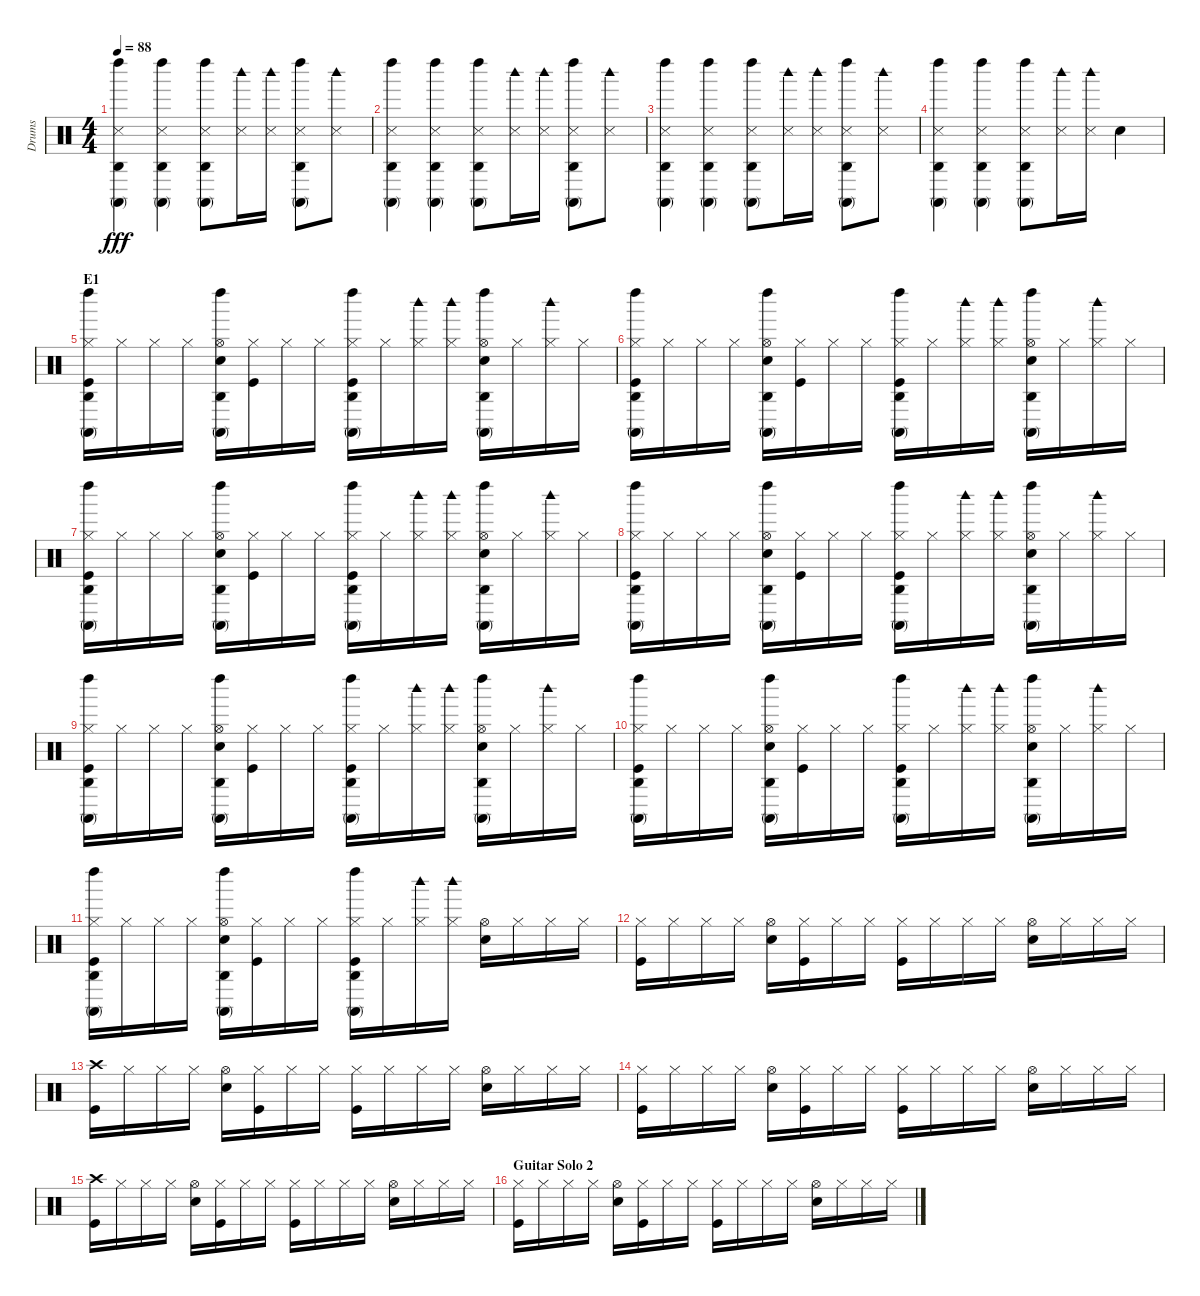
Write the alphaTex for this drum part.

\track ("Drums" "Drums") {instrument percussion}
\staff {score}
\articulation defaults
\ts (4 4)
\tempo 88
\clef neutral
\ks c
("Left Maraca (hit)" "Agogo high (hit)" "Conga high (mute)" "Snare (side stick) 3").4{dy fff} ("Left Maraca (hit)" "Agogo high (hit)" "Conga high (mute)" "Snare (side stick) 3").4 ("Left Maraca (hit)" "Agogo high (hit)" "Conga high (mute)" "Snare (side stick) 3").8 ("Woodblock high (hit)" "Snare (side stick) 3").16 ("Woodblock high (hit)" "Snare (side stick) 3").16 ("Left Maraca (hit)" "Agogo high (hit)" "Conga high (mute)" "Snare (side stick) 3").8 ("Woodblock high (hit)" "Snare (side stick) 3").8 |
("Left Maraca (hit)" "Agogo high (hit)" "Conga high (mute)" "Snare (side stick) 3").4 ("Left Maraca (hit)" "Agogo high (hit)" "Conga high (mute)" "Snare (side stick) 3").4 ("Left Maraca (hit)" "Agogo high (hit)" "Conga high (mute)" "Snare (side stick) 3").8 ("Woodblock high (hit)" "Snare (side stick) 3").16 ("Woodblock high (hit)" "Snare (side stick) 3").16 ("Left Maraca (hit)" "Agogo high (hit)" "Conga high (mute)" "Snare (side stick) 3").8 ("Woodblock high (hit)" "Snare (side stick) 3").8 |
("Left Maraca (hit)" "Agogo high (hit)" "Conga high (mute)" "Snare (side stick) 3").4 ("Left Maraca (hit)" "Agogo high (hit)" "Conga high (mute)" "Snare (side stick) 3").4 ("Left Maraca (hit)" "Agogo high (hit)" "Conga high (mute)" "Snare (side stick) 3").8 ("Woodblock high (hit)" "Snare (side stick) 3").16 ("Woodblock high (hit)" "Snare (side stick) 3").16 ("Left Maraca (hit)" "Agogo high (hit)" "Conga high (mute)" "Snare (side stick) 3").8 ("Woodblock high (hit)" "Snare (side stick) 3").8 |
("Left Maraca (hit)" "Agogo high (hit)" "Conga high (mute)" "Snare (side stick) 3").4 ("Left Maraca (hit)" "Agogo high (hit)" "Conga high (mute)" "Snare (side stick) 3").4 ("Left Maraca (hit)" "Agogo high (hit)" "Conga high (mute)" "Snare (side stick) 3").8 ("Woodblock high (hit)" "Snare (side stick) 3").16 ("Woodblock high (hit)" "Snare (side stick) 3").16 "Electric Snare (hit)".4 |
\section ("" "E1")
("Hi-Hat (closed)" "Left Maraca (hit)" "Agogo high (hit)" "Conga high (mute)" "Kick (hit)").16 "Hi-Hat (closed)".16 "Hi-Hat (closed)".16 "Hi-Hat (closed)".16 ("Hi-Hat (open)" "Left Maraca (hit)" "Agogo high (hit)" "Conga high (mute)" "Snare (hit) 2").16 ("Hi-Hat (closed)" "Kick (hit)").16 "Hi-Hat (closed)".16 "Hi-Hat (closed)".16 ("Hi-Hat (closed)" "Left Maraca (hit)" "Agogo high (hit)" "Conga high (mute)" "Kick (hit)").16 "Hi-Hat (closed)".16 ("Hi-Hat (closed)" "Woodblock high (hit)").16 ("Hi-Hat (closed)" "Woodblock high (hit)").16 ("Hi-Hat (open)" "Left Maraca (hit)" "Agogo high (hit)" "Conga high (mute)" "Snare (hit) 2").16 "Hi-Hat (closed)".16 ("Hi-Hat (closed)" "Woodblock high (hit)").16 "Hi-Hat (closed)".16 |
("Hi-Hat (closed)" "Left Maraca (hit)" "Agogo high (hit)" "Conga high (mute)" "Kick (hit)").16 "Hi-Hat (closed)".16 "Hi-Hat (closed)".16 "Hi-Hat (closed)".16 ("Hi-Hat (open)" "Left Maraca (hit)" "Agogo high (hit)" "Conga high (mute)" "Snare (hit) 2").16 ("Hi-Hat (closed)" "Kick (hit)").16 "Hi-Hat (closed)".16 "Hi-Hat (closed)".16 ("Hi-Hat (closed)" "Left Maraca (hit)" "Agogo high (hit)" "Conga high (mute)" "Kick (hit)").16 "Hi-Hat (closed)".16 ("Hi-Hat (closed)" "Woodblock high (hit)").16 ("Hi-Hat (closed)" "Woodblock high (hit)").16 ("Hi-Hat (open)" "Left Maraca (hit)" "Agogo high (hit)" "Conga high (mute)" "Snare (hit) 2").16 "Hi-Hat (closed)".16 ("Hi-Hat (closed)" "Woodblock high (hit)").16 "Hi-Hat (closed)".16 |
("Hi-Hat (closed)" "Left Maraca (hit)" "Agogo high (hit)" "Conga high (mute)" "Kick (hit)").16 "Hi-Hat (closed)".16 "Hi-Hat (closed)".16 "Hi-Hat (closed)".16 ("Hi-Hat (open)" "Left Maraca (hit)" "Agogo high (hit)" "Conga high (mute)" "Snare (hit) 2").16 ("Hi-Hat (closed)" "Kick (hit)").16 "Hi-Hat (closed)".16 "Hi-Hat (closed)".16 ("Hi-Hat (closed)" "Left Maraca (hit)" "Agogo high (hit)" "Conga high (mute)" "Kick (hit)").16 "Hi-Hat (closed)".16 ("Hi-Hat (closed)" "Woodblock high (hit)").16 ("Hi-Hat (closed)" "Woodblock high (hit)").16 ("Hi-Hat (open)" "Left Maraca (hit)" "Agogo high (hit)" "Conga high (mute)" "Snare (hit) 2").16 "Hi-Hat (closed)".16 ("Hi-Hat (closed)" "Woodblock high (hit)").16 "Hi-Hat (closed)".16 |
("Hi-Hat (closed)" "Left Maraca (hit)" "Agogo high (hit)" "Conga high (mute)" "Kick (hit)").16 "Hi-Hat (closed)".16 "Hi-Hat (closed)".16 "Hi-Hat (closed)".16 ("Hi-Hat (open)" "Left Maraca (hit)" "Agogo high (hit)" "Conga high (mute)" "Snare (hit) 2").16 ("Hi-Hat (closed)" "Kick (hit)").16 "Hi-Hat (closed)".16 "Hi-Hat (closed)".16 ("Hi-Hat (closed)" "Left Maraca (hit)" "Agogo high (hit)" "Conga high (mute)" "Kick (hit)").16 "Hi-Hat (closed)".16 ("Hi-Hat (closed)" "Woodblock high (hit)").16 ("Hi-Hat (closed)" "Woodblock high (hit)").16 ("Hi-Hat (open)" "Left Maraca (hit)" "Agogo high (hit)" "Conga high (mute)" "Snare (hit) 2").16 "Hi-Hat (closed)".16 ("Hi-Hat (closed)" "Woodblock high (hit)").16 "Hi-Hat (closed)".16 |
("Hi-Hat (closed)" "Left Maraca (hit)" "Agogo high (hit)" "Conga high (mute)" "Kick (hit)").16 "Hi-Hat (closed)".16 "Hi-Hat (closed)".16 "Hi-Hat (closed)".16 ("Hi-Hat (open)" "Left Maraca (hit)" "Agogo high (hit)" "Conga high (mute)" "Snare (hit) 2").16 ("Hi-Hat (closed)" "Kick (hit)").16 "Hi-Hat (closed)".16 "Hi-Hat (closed)".16 ("Hi-Hat (closed)" "Left Maraca (hit)" "Agogo high (hit)" "Conga high (mute)" "Kick (hit)").16 "Hi-Hat (closed)".16 ("Hi-Hat (closed)" "Woodblock high (hit)").16 ("Hi-Hat (closed)" "Woodblock high (hit)").16 ("Hi-Hat (open)" "Left Maraca (hit)" "Agogo high (hit)" "Conga high (mute)" "Snare (hit) 2").16 "Hi-Hat (closed)".16 ("Hi-Hat (closed)" "Woodblock high (hit)").16 "Hi-Hat (closed)".16 |
("Hi-Hat (closed)" "Left Maraca (hit)" "Agogo high (hit)" "Conga high (mute)" "Kick (hit)").16 "Hi-Hat (closed)".16 "Hi-Hat (closed)".16 "Hi-Hat (closed)".16 ("Hi-Hat (open)" "Left Maraca (hit)" "Agogo high (hit)" "Conga high (mute)" "Snare (hit) 2").16 ("Hi-Hat (closed)" "Kick (hit)").16 "Hi-Hat (closed)".16 "Hi-Hat (closed)".16 ("Hi-Hat (closed)" "Left Maraca (hit)" "Agogo high (hit)" "Conga high (mute)" "Kick (hit)").16 "Hi-Hat (closed)".16 ("Hi-Hat (closed)" "Woodblock high (hit)").16 ("Hi-Hat (closed)" "Woodblock high (hit)").16 ("Hi-Hat (open)" "Left Maraca (hit)" "Agogo high (hit)" "Conga high (mute)" "Snare (hit) 2").16 "Hi-Hat (closed)".16 ("Hi-Hat (closed)" "Woodblock high (hit)").16 "Hi-Hat (closed)".16 |
("Hi-Hat (closed)" "Left Maraca (hit)" "Agogo high (hit)" "Conga high (mute)" "Kick (hit)").16 "Hi-Hat (closed)".16 "Hi-Hat (closed)".16 "Hi-Hat (closed)".16 ("Hi-Hat (open)" "Left Maraca (hit)" "Agogo high (hit)" "Conga high (mute)" "Snare (hit) 2").16 ("Hi-Hat (closed)" "Kick (hit)").16 "Hi-Hat (closed)".16 "Hi-Hat (closed)".16 ("Hi-Hat (closed)" "Left Maraca (hit)" "Agogo high (hit)" "Conga high (mute)" "Kick (hit)").16 "Hi-Hat (closed)".16 ("Hi-Hat (closed)" "Woodblock high (hit)").16 ("Hi-Hat (closed)" "Woodblock high (hit)").16 ("Hi-Hat (open)" "Snare (hit) 2").16 "Hi-Hat (closed)".16 "Hi-Hat (closed)".16 "Hi-Hat (closed)".16 |
("Hi-Hat (closed)" "Kick (hit)").16 "Hi-Hat (closed)".16 "Hi-Hat (closed)".16 "Hi-Hat (closed)".16 ("Hi-Hat (open)" "Snare (hit) 2").16 ("Hi-Hat (closed)" "Kick (hit)").16 "Hi-Hat (closed)".16 "Hi-Hat (closed)".16 ("Hi-Hat (closed)" "Kick (hit)").16 "Hi-Hat (closed)".16 "Hi-Hat (closed)".16 "Hi-Hat (closed)".16 ("Hi-Hat (open)" "Snare (hit) 2").16 "Hi-Hat (closed)".16 "Hi-Hat (closed)".16 "Hi-Hat (closed)".16 |
("Crash high (hit)" "Kick (hit)").16 "Hi-Hat (closed)".16 "Hi-Hat (closed)".16 "Hi-Hat (closed)".16 ("Hi-Hat (open)" "Snare (hit) 2").16 ("Hi-Hat (closed)" "Kick (hit)").16 "Hi-Hat (closed)".16 "Hi-Hat (closed)".16 ("Hi-Hat (closed)" "Kick (hit)").16 "Hi-Hat (closed)".16 "Hi-Hat (closed)".16 "Hi-Hat (closed)".16 ("Hi-Hat (open)" "Snare (hit) 2").16 "Hi-Hat (closed)".16 "Hi-Hat (closed)".16 "Hi-Hat (closed)".16 |
("Hi-Hat (closed)" "Kick (hit)").16 "Hi-Hat (closed)".16 "Hi-Hat (closed)".16 "Hi-Hat (closed)".16 ("Hi-Hat (open)" "Snare (hit) 2").16 ("Hi-Hat (closed)" "Kick (hit)").16 "Hi-Hat (closed)".16 "Hi-Hat (closed)".16 ("Hi-Hat (closed)" "Kick (hit)").16 "Hi-Hat (closed)".16 "Hi-Hat (closed)".16 "Hi-Hat (closed)".16 ("Hi-Hat (open)" "Snare (hit) 2").16 "Hi-Hat (closed)".16 "Hi-Hat (closed)".16 "Hi-Hat (closed)".16 |
("Crash high (hit)" "Kick (hit)").16 "Hi-Hat (closed)".16 "Hi-Hat (closed)".16 "Hi-Hat (closed)".16 ("Hi-Hat (open)" "Snare (hit) 2").16 ("Hi-Hat (closed)" "Kick (hit)").16 "Hi-Hat (closed)".16 "Hi-Hat (closed)".16 ("Hi-Hat (closed)" "Kick (hit)").16 "Hi-Hat (closed)".16 "Hi-Hat (closed)".16 "Hi-Hat (closed)".16 ("Hi-Hat (open)" "Snare (hit) 2").16 "Hi-Hat (closed)".16 "Hi-Hat (closed)".16 "Hi-Hat (closed)".16 |
\section ("" "Guitar Solo 2")
("Hi-Hat (closed)" "Kick (hit)").16 "Hi-Hat (closed)".16 "Hi-Hat (closed)".16 "Hi-Hat (closed)".16 ("Hi-Hat (open)" "Snare (hit) 2").16 ("Hi-Hat (closed)" "Kick (hit)").16 "Hi-Hat (closed)".16 "Hi-Hat (closed)".16 ("Hi-Hat (closed)" "Kick (hit)").16 "Hi-Hat (closed)".16 "Hi-Hat (closed)".16 "Hi-Hat (closed)".16 ("Hi-Hat (open)" "Snare (hit) 2").16 "Hi-Hat (closed)".16 "Hi-Hat (closed)".16 "Hi-Hat (closed)".16
